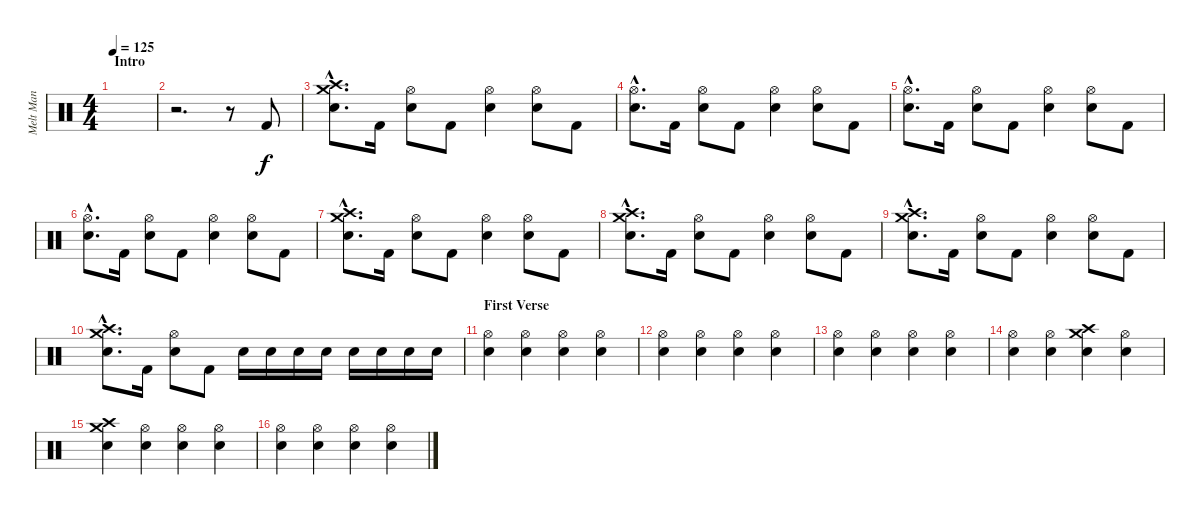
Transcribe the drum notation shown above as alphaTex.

\track ("Melt Man" "Melt Man") {instrument percussion}
\staff {score}
\articulation defaults
\ts (4 4)
\section ("" "Intro")
\tempo 125
\clef neutral
\ks c
|
r.2{d} r.8 "Kick (hit) 2".8 |
("Crash high (hit)"{hac} "Crash medium (hit)"{hac} "Snare (hit) 2"{hac}).8{d dy f} "Kick (hit) 2".16 ("Hi-Hat (open)" "Snare (hit) 2").8 "Kick (hit) 2".8 ("Hi-Hat (open)" "Snare (hit) 2").4 ("Hi-Hat (open)" "Snare (hit) 2").8 "Kick (hit) 2".8 |
("Hi-Hat (open)"{hac} "Snare (hit) 2"{hac}).8{d} "Kick (hit) 2".16 ("Hi-Hat (open)" "Snare (hit) 2").8 "Kick (hit) 2".8 ("Hi-Hat (open)" "Snare (hit) 2").4 ("Hi-Hat (open)" "Snare (hit) 2").8 "Kick (hit) 2".8 |
("Hi-Hat (open)"{hac} "Snare (hit) 2"{hac}).8{d} "Kick (hit) 2".16 ("Hi-Hat (open)" "Snare (hit) 2").8 "Kick (hit) 2".8 ("Hi-Hat (open)" "Snare (hit) 2").4 ("Hi-Hat (open)" "Snare (hit) 2").8 "Kick (hit) 2".8 |
("Hi-Hat (open)"{hac} "Snare (hit) 2"{hac}).8{d} "Kick (hit) 2".16 ("Hi-Hat (open)" "Snare (hit) 2").8 "Kick (hit) 2".8 ("Hi-Hat (open)" "Snare (hit) 2").4 ("Hi-Hat (open)" "Snare (hit) 2").8 "Kick (hit) 2".8 |
("Crash high (hit)"{hac} "Crash medium (hit)"{hac} "Snare (hit) 2"{hac}).8{d} "Kick (hit) 2".16 ("Hi-Hat (open)" "Snare (hit) 2").8 "Kick (hit) 2".8 ("Hi-Hat (open)" "Snare (hit) 2").4 ("Hi-Hat (open)" "Snare (hit) 2").8 "Kick (hit) 2".8 |
("Crash medium (hit)"{hac} "Crash high (hit)"{hac} "Snare (hit) 2"{hac}).8{d} "Kick (hit) 2".16 ("Hi-Hat (open)" "Snare (hit) 2").8 "Kick (hit) 2".8 ("Hi-Hat (open)" "Snare (hit) 2").4 ("Hi-Hat (open)" "Snare (hit) 2").8 "Kick (hit) 2".8 |
("Crash high (hit)"{hac} "Crash medium (hit)"{hac} "Snare (hit) 2"{hac}).8{d} "Kick (hit) 2".16 ("Hi-Hat (open)" "Snare (hit) 2").8 "Kick (hit) 2".8 ("Hi-Hat (open)" "Snare (hit) 2").4 ("Hi-Hat (open)" "Snare (hit) 2").8 "Kick (hit) 2".8 |
("Crash medium (hit)"{hac} "Crash high (hit)"{hac} "Snare (hit) 2"{hac}).8{d} "Kick (hit) 2".16 ("Hi-Hat (open)" "Snare (hit) 2").8 "Kick (hit) 2".8 "Snare (hit) 2".16 "Snare (hit) 2".16 "Snare (hit) 2".16 "Snare (hit) 2".16 "Snare (hit) 2".16 "Snare (hit) 2".16 "Snare (hit) 2".16 "Snare (hit) 2".16 |
\section ("" "First Verse")
("Hi-Hat (open)" "Snare (hit) 2").4 ("Hi-Hat (open)" "Snare (hit) 2").4 ("Hi-Hat (open)" "Snare (hit) 2").4 ("Hi-Hat (open)" "Snare (hit) 2").4 |
("Hi-Hat (open)" "Snare (hit) 2").4 ("Hi-Hat (open)" "Snare (hit) 2").4 ("Hi-Hat (open)" "Snare (hit) 2").4 ("Hi-Hat (open)" "Snare (hit) 2").4 |
("Hi-Hat (open)" "Snare (hit) 2").4 ("Hi-Hat (open)" "Snare (hit) 2").4 ("Hi-Hat (open)" "Snare (hit) 2").4 ("Hi-Hat (open)" "Snare (hit) 2").4 |
("Hi-Hat (open)" "Snare (hit) 2").4 ("Hi-Hat (open)" "Snare (hit) 2").4 ("Crash medium (hit)" "Crash high (hit)" "Snare (hit) 2").4 ("Hi-Hat (open)" "Snare (hit) 2").4 |
("Crash medium (hit)" "Crash high (hit)" "Snare (hit) 2").4 ("Hi-Hat (open)" "Snare (hit) 2").4 ("Hi-Hat (open)" "Snare (hit) 2").4 ("Hi-Hat (open)" "Snare (hit) 2").4 |
("Hi-Hat (open)" "Snare (hit) 2").4 ("Hi-Hat (open)" "Snare (hit) 2").4 ("Hi-Hat (open)" "Snare (hit) 2").4 ("Hi-Hat (open)" "Snare (hit) 2").4
